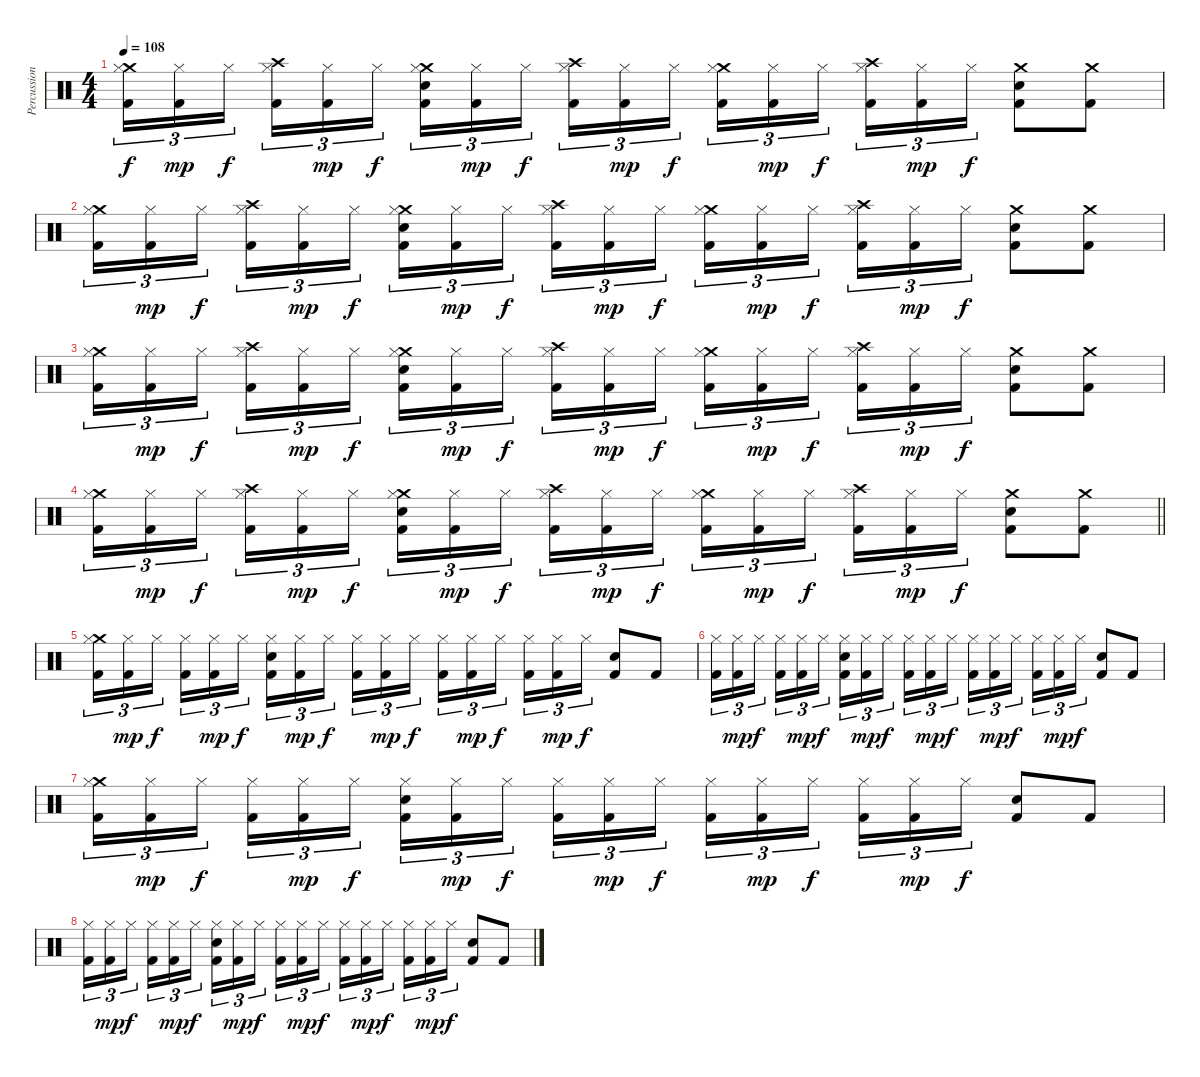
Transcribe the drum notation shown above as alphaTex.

\track ("Percussion" "Percussion") {instrument percussion}
\staff {score}
\articulation defaults
\ts (4 4)
\tempo 108
\clef neutral
\ks c
("Crash medium (hit)" "Hi-Hat (closed)" "Kick (hit) 2").16{tu (3 2) dy f} ("Hi-Hat (closed)" "Kick (hit) 2").16{tu (3 2) dy mp} "Hi-Hat (closed)".16{tu (3 2) dy f beam splitsecondary} ("Crash high (hit)" "Hi-Hat (closed)" "Kick (hit) 2").16{tu (3 2)} ("Hi-Hat (closed)" "Kick (hit) 2").16{tu (3 2) dy mp} "Hi-Hat (closed)".16{tu (3 2) dy f} ("Crash medium (hit)" "Hi-Hat (closed)" "Electric Snare (hit)" "Kick (hit) 2").16{tu (3 2)} ("Hi-Hat (closed)" "Kick (hit) 2").16{tu (3 2) dy mp} "Hi-Hat (closed)".16{tu (3 2) dy f beam splitsecondary} ("Crash high (hit)" "Hi-Hat (closed)" "Kick (hit) 2").16{tu (3 2)} ("Hi-Hat (closed)" "Kick (hit) 2").16{tu (3 2) dy mp} "Hi-Hat (closed)".16{tu (3 2) dy f} ("Crash medium (hit)" "Hi-Hat (closed)" "Kick (hit) 2").16{tu (3 2)} ("Hi-Hat (closed)" "Kick (hit) 2").16{tu (3 2) dy mp} "Hi-Hat (closed)".16{tu (3 2) dy f beam splitsecondary} ("Crash high (hit)" "Hi-Hat (closed)" "Kick (hit) 2").16{tu (3 2)} ("Hi-Hat (closed)" "Kick (hit) 2").16{tu (3 2) dy mp} "Hi-Hat (closed)".16{tu (3 2) dy f} ("Crash medium (hit)" "Electric Snare (hit)" "Kick (hit) 2").8 ("Crash medium (hit)" "Kick (hit) 2").8 |
("Crash medium (hit)" "Hi-Hat (closed)" "Kick (hit) 2").16{tu (3 2)} ("Hi-Hat (closed)" "Kick (hit) 2").16{tu (3 2) dy mp} "Hi-Hat (closed)".16{tu (3 2) dy f beam splitsecondary} ("Crash high (hit)" "Hi-Hat (closed)" "Kick (hit) 2").16{tu (3 2)} ("Hi-Hat (closed)" "Kick (hit) 2").16{tu (3 2) dy mp} "Hi-Hat (closed)".16{tu (3 2) dy f} ("Crash medium (hit)" "Hi-Hat (closed)" "Electric Snare (hit)" "Kick (hit) 2").16{tu (3 2)} ("Hi-Hat (closed)" "Kick (hit) 2").16{tu (3 2) dy mp} "Hi-Hat (closed)".16{tu (3 2) dy f beam splitsecondary} ("Crash high (hit)" "Hi-Hat (closed)" "Kick (hit) 2").16{tu (3 2)} ("Hi-Hat (closed)" "Kick (hit) 2").16{tu (3 2) dy mp} "Hi-Hat (closed)".16{tu (3 2) dy f} ("Crash medium (hit)" "Hi-Hat (closed)" "Kick (hit) 2").16{tu (3 2)} ("Hi-Hat (closed)" "Kick (hit) 2").16{tu (3 2) dy mp} "Hi-Hat (closed)".16{tu (3 2) dy f beam splitsecondary} ("Crash high (hit)" "Hi-Hat (closed)" "Kick (hit) 2").16{tu (3 2)} ("Hi-Hat (closed)" "Kick (hit) 2").16{tu (3 2) dy mp} "Hi-Hat (closed)".16{tu (3 2) dy f} ("Crash medium (hit)" "Electric Snare (hit)" "Kick (hit) 2").8 ("Crash medium (hit)" "Kick (hit) 2").8 |
("Crash medium (hit)" "Hi-Hat (closed)" "Kick (hit) 2").16{tu (3 2)} ("Hi-Hat (closed)" "Kick (hit) 2").16{tu (3 2) dy mp} "Hi-Hat (closed)".16{tu (3 2) dy f beam splitsecondary} ("Crash high (hit)" "Hi-Hat (closed)" "Kick (hit) 2").16{tu (3 2)} ("Hi-Hat (closed)" "Kick (hit) 2").16{tu (3 2) dy mp} "Hi-Hat (closed)".16{tu (3 2) dy f} ("Crash medium (hit)" "Hi-Hat (closed)" "Electric Snare (hit)" "Kick (hit) 2").16{tu (3 2)} ("Hi-Hat (closed)" "Kick (hit) 2").16{tu (3 2) dy mp} "Hi-Hat (closed)".16{tu (3 2) dy f beam splitsecondary} ("Crash high (hit)" "Hi-Hat (closed)" "Kick (hit) 2").16{tu (3 2)} ("Hi-Hat (closed)" "Kick (hit) 2").16{tu (3 2) dy mp} "Hi-Hat (closed)".16{tu (3 2) dy f} ("Crash medium (hit)" "Hi-Hat (closed)" "Kick (hit) 2").16{tu (3 2)} ("Hi-Hat (closed)" "Kick (hit) 2").16{tu (3 2) dy mp} "Hi-Hat (closed)".16{tu (3 2) dy f beam splitsecondary} ("Crash high (hit)" "Hi-Hat (closed)" "Kick (hit) 2").16{tu (3 2)} ("Hi-Hat (closed)" "Kick (hit) 2").16{tu (3 2) dy mp} "Hi-Hat (closed)".16{tu (3 2) dy f} ("Crash medium (hit)" "Electric Snare (hit)" "Kick (hit) 2").8 ("Crash medium (hit)" "Kick (hit) 2").8 |
\barLineRight lightlight
("Crash medium (hit)" "Hi-Hat (closed)" "Kick (hit) 2").16{tu (3 2)} ("Hi-Hat (closed)" "Kick (hit) 2").16{tu (3 2) dy mp} "Hi-Hat (closed)".16{tu (3 2) dy f beam splitsecondary} ("Crash high (hit)" "Hi-Hat (closed)" "Kick (hit) 2").16{tu (3 2)} ("Hi-Hat (closed)" "Kick (hit) 2").16{tu (3 2) dy mp} "Hi-Hat (closed)".16{tu (3 2) dy f} ("Crash medium (hit)" "Hi-Hat (closed)" "Electric Snare (hit)" "Kick (hit) 2").16{tu (3 2)} ("Hi-Hat (closed)" "Kick (hit) 2").16{tu (3 2) dy mp} "Hi-Hat (closed)".16{tu (3 2) dy f beam splitsecondary} ("Crash high (hit)" "Hi-Hat (closed)" "Kick (hit) 2").16{tu (3 2)} ("Hi-Hat (closed)" "Kick (hit) 2").16{tu (3 2) dy mp} "Hi-Hat (closed)".16{tu (3 2) dy f} ("Crash medium (hit)" "Hi-Hat (closed)" "Kick (hit) 2").16{tu (3 2)} ("Hi-Hat (closed)" "Kick (hit) 2").16{tu (3 2) dy mp} "Hi-Hat (closed)".16{tu (3 2) dy f beam splitsecondary} ("Crash high (hit)" "Hi-Hat (closed)" "Kick (hit) 2").16{tu (3 2)} ("Hi-Hat (closed)" "Kick (hit) 2").16{tu (3 2) dy mp} "Hi-Hat (closed)".16{tu (3 2) dy f} ("Crash medium (hit)" "Electric Snare (hit)" "Kick (hit) 2").8 ("Crash medium (hit)" "Kick (hit) 2").8 |
\section ("" "")
("Crash medium (hit)" "Hi-Hat (closed)" "Kick (hit) 2").16{tu (3 2)} ("Hi-Hat (closed)" "Kick (hit) 2").16{tu (3 2) dy mp} "Hi-Hat (closed)".16{tu (3 2) dy f beam splitsecondary} ("Hi-Hat (closed)" "Kick (hit) 2").16{tu (3 2)} ("Hi-Hat (closed)" "Kick (hit) 2").16{tu (3 2) dy mp} "Hi-Hat (closed)".16{tu (3 2) dy f} ("Hi-Hat (closed)" "Electric Snare (hit)" "Kick (hit) 2").16{tu (3 2)} ("Hi-Hat (closed)" "Kick (hit) 2").16{tu (3 2) dy mp} "Hi-Hat (closed)".16{tu (3 2) dy f beam splitsecondary} ("Hi-Hat (closed)" "Kick (hit) 2").16{tu (3 2)} ("Hi-Hat (closed)" "Kick (hit) 2").16{tu (3 2) dy mp} "Hi-Hat (closed)".16{tu (3 2) dy f} ("Hi-Hat (closed)" "Kick (hit) 2").16{tu (3 2)} ("Hi-Hat (closed)" "Kick (hit) 2").16{tu (3 2) dy mp} "Hi-Hat (closed)".16{tu (3 2) dy f beam splitsecondary} ("Hi-Hat (closed)" "Kick (hit) 2").16{tu (3 2)} ("Hi-Hat (closed)" "Kick (hit) 2").16{tu (3 2) dy mp} "Hi-Hat (closed)".16{tu (3 2) dy f} ("Electric Snare (hit)" "Kick (hit) 2").8 "Kick (hit) 2".8 |
("Hi-Hat (closed)" "Kick (hit) 2").16{tu (3 2)} ("Hi-Hat (closed)" "Kick (hit) 2").16{tu (3 2) dy mp} "Hi-Hat (closed)".16{tu (3 2) dy f beam splitsecondary} ("Hi-Hat (closed)" "Kick (hit) 2").16{tu (3 2)} ("Hi-Hat (closed)" "Kick (hit) 2").16{tu (3 2) dy mp} "Hi-Hat (closed)".16{tu (3 2) dy f} ("Hi-Hat (closed)" "Electric Snare (hit)" "Kick (hit) 2").16{tu (3 2)} ("Hi-Hat (closed)" "Kick (hit) 2").16{tu (3 2) dy mp} "Hi-Hat (closed)".16{tu (3 2) dy f beam splitsecondary} ("Hi-Hat (closed)" "Kick (hit) 2").16{tu (3 2)} ("Hi-Hat (closed)" "Kick (hit) 2").16{tu (3 2) dy mp} "Hi-Hat (closed)".16{tu (3 2) dy f} ("Hi-Hat (closed)" "Kick (hit) 2").16{tu (3 2)} ("Hi-Hat (closed)" "Kick (hit) 2").16{tu (3 2) dy mp} "Hi-Hat (closed)".16{tu (3 2) dy f beam splitsecondary} ("Hi-Hat (closed)" "Kick (hit) 2").16{tu (3 2)} ("Hi-Hat (closed)" "Kick (hit) 2").16{tu (3 2) dy mp} "Hi-Hat (closed)".16{tu (3 2) dy f} ("Electric Snare (hit)" "Kick (hit) 2").8 "Kick (hit) 2".8 |
("Crash medium (hit)" "Hi-Hat (closed)" "Kick (hit) 2").16{tu (3 2)} ("Hi-Hat (closed)" "Kick (hit) 2").16{tu (3 2) dy mp} "Hi-Hat (closed)".16{tu (3 2) dy f beam splitsecondary} ("Hi-Hat (closed)" "Kick (hit) 2").16{tu (3 2)} ("Hi-Hat (closed)" "Kick (hit) 2").16{tu (3 2) dy mp} "Hi-Hat (closed)".16{tu (3 2) dy f} ("Hi-Hat (closed)" "Electric Snare (hit)" "Kick (hit) 2").16{tu (3 2)} ("Hi-Hat (closed)" "Kick (hit) 2").16{tu (3 2) dy mp} "Hi-Hat (closed)".16{tu (3 2) dy f beam splitsecondary} ("Hi-Hat (closed)" "Kick (hit) 2").16{tu (3 2)} ("Hi-Hat (closed)" "Kick (hit) 2").16{tu (3 2) dy mp} "Hi-Hat (closed)".16{tu (3 2) dy f} ("Hi-Hat (closed)" "Kick (hit) 2").16{tu (3 2)} ("Hi-Hat (closed)" "Kick (hit) 2").16{tu (3 2) dy mp} "Hi-Hat (closed)".16{tu (3 2) dy f beam splitsecondary} ("Hi-Hat (closed)" "Kick (hit) 2").16{tu (3 2)} ("Hi-Hat (closed)" "Kick (hit) 2").16{tu (3 2) dy mp} "Hi-Hat (closed)".16{tu (3 2) dy f} ("Electric Snare (hit)" "Kick (hit) 2").8 "Kick (hit) 2".8 |
("Hi-Hat (closed)" "Kick (hit) 2").16{tu (3 2)} ("Hi-Hat (closed)" "Kick (hit) 2").16{tu (3 2) dy mp} "Hi-Hat (closed)".16{tu (3 2) dy f beam splitsecondary} ("Hi-Hat (closed)" "Kick (hit) 2").16{tu (3 2)} ("Hi-Hat (closed)" "Kick (hit) 2").16{tu (3 2) dy mp} "Hi-Hat (closed)".16{tu (3 2) dy f} ("Hi-Hat (closed)" "Electric Snare (hit)" "Kick (hit) 2").16{tu (3 2)} ("Hi-Hat (closed)" "Kick (hit) 2").16{tu (3 2) dy mp} "Hi-Hat (closed)".16{tu (3 2) dy f beam splitsecondary} ("Hi-Hat (closed)" "Kick (hit) 2").16{tu (3 2)} ("Hi-Hat (closed)" "Kick (hit) 2").16{tu (3 2) dy mp} "Hi-Hat (closed)".16{tu (3 2) dy f} ("Hi-Hat (closed)" "Kick (hit) 2").16{tu (3 2)} ("Hi-Hat (closed)" "Kick (hit) 2").16{tu (3 2) dy mp} "Hi-Hat (closed)".16{tu (3 2) dy f beam splitsecondary} ("Hi-Hat (closed)" "Kick (hit) 2").16{tu (3 2)} ("Hi-Hat (closed)" "Kick (hit) 2").16{tu (3 2) dy mp} "Hi-Hat (closed)".16{tu (3 2) dy f} ("Electric Snare (hit)" "Kick (hit) 2").8 "Kick (hit) 2".8
